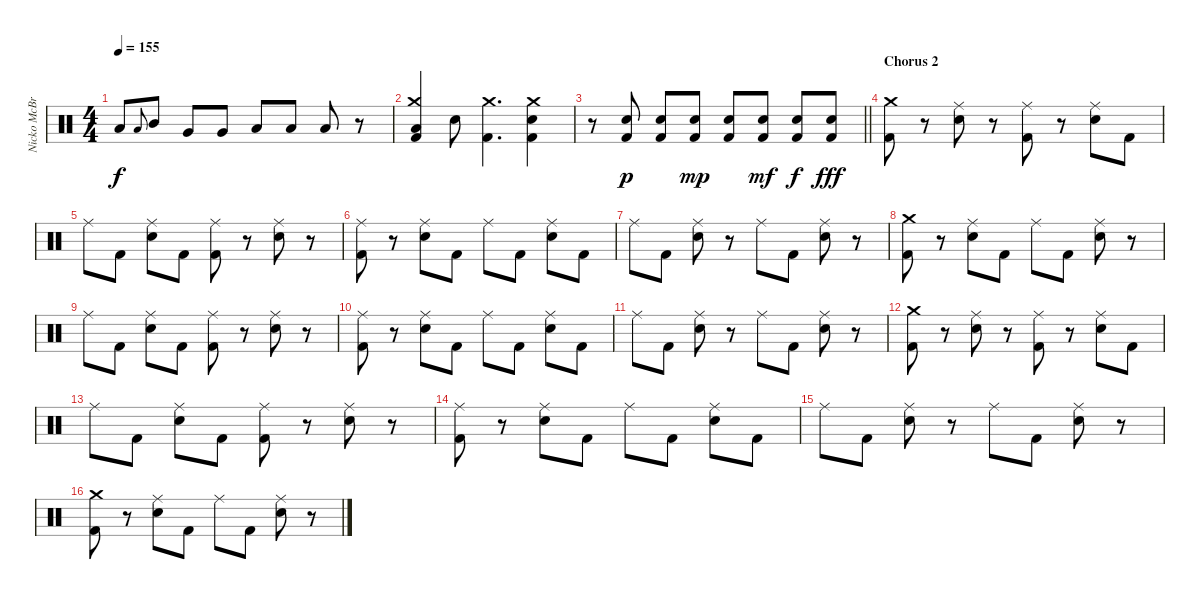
\track ("Nicko McBrain" "Nicko McBr") {instrument percussion}
\staff {score}
\articulation defaults
\ts (4 4)
\tempo 155
\clef neutral
\ks c "Low Floor Tom (hit)".8{dy f} "Low Tom (hit)".8{gr onbeat} "Mid Tom (hit)".8 "Very Low Tom (hit)".8 "Very Low Tom (hit)".8 "Low Tom (hit)".8 "Low Floor Tom (hit)".8 "Low Floor Tom (hit)".8
r.8 |
("Crash medium (hit)" "Low Floor Tom (hit)" "Kick (hit) 2").4 "Snare (hit) 2".8 ("Crash medium (hit)" "Kick (hit) 2").4{d} ("Crash medium (hit)" "Snare (hit) 2" "Kick (hit) 2").4 |
\barLineRight lightlight
r.8 ("Snare (hit) 2" "Kick (hit) 2").8{dy p} ("Snare (hit) 2" "Kick (hit) 2").8 ("Snare (hit) 2" "Kick (hit) 2").8{dy mp} ("Snare (hit) 2" "Kick (hit) 2").8 ("Snare (hit) 2" "Kick (hit) 2").8{dy mf} ("Snare (hit) 2" "Kick (hit) 2").8{dy f} ("Snare (hit) 2" "Kick (hit) 2").8{dy fff} |
\section ("" "Chorus 2")
("Crash medium (hit)" "Kick (hit) 2").8 r.8 ("Ride (middle)" "Snare (hit) 2").8 r.8 ("Ride (middle)" "Kick (hit) 2").8 r.8 ("Ride (middle)" "Snare (hit) 2").8 "Kick (hit) 2".8 |
"Ride (middle)".8 "Kick (hit) 2".8 ("Ride (middle)" "Snare (hit) 2").8 "Kick (hit) 2".8 ("Ride (middle)" "Kick (hit) 2").8 r.8 ("Ride (middle)" "Snare (hit) 2").8 r.8 |
("Ride (middle)" "Kick (hit) 2").8 r.8 ("Ride (middle)" "Snare (hit) 2").8 "Kick (hit) 2".8 "Ride (middle)".8 "Kick (hit) 2".8 ("Ride (middle)" "Snare (hit) 2").8 "Kick (hit) 2".8 |
"Ride (middle)".8 "Kick (hit) 2".8 ("Ride (middle)" "Snare (hit) 2").8 r.8 "Ride (middle)".8 "Kick (hit) 2".8 ("Ride (middle)" "Snare (hit) 2").8 r.8 |
("Crash medium (hit)" "Kick (hit) 2").8 r.8 ("Ride (middle)" "Snare (hit) 2").8 "Kick (hit) 2".8 "Ride (middle)".8 "Kick (hit) 2".8 ("Ride (middle)" "Snare (hit) 2").8 r.8 |
"Ride (middle)".8 "Kick (hit) 2".8 ("Ride (middle)" "Snare (hit) 2").8 "Kick (hit) 2".8 ("Ride (middle)" "Kick (hit) 2").8 r.8 ("Ride (middle)" "Snare (hit) 2").8 r.8 |
("Ride (middle)" "Kick (hit) 2").8 r.8 ("Ride (middle)" "Snare (hit) 2").8 "Kick (hit) 2".8 "Ride (middle)".8 "Kick (hit) 2".8 ("Ride (middle)" "Snare (hit) 2").8 "Kick (hit) 2".8 |
"Ride (middle)".8 "Kick (hit) 2".8 ("Ride (middle)" "Snare (hit) 2").8 r.8 "Ride (middle)".8 "Kick (hit) 2".8 ("Ride (middle)" "Snare (hit) 2").8 r.8 |
("Crash medium (hit)" "Kick (hit) 2").8 r.8 ("Ride (middle)" "Snare (hit) 2").8 r.8 ("Ride (middle)" "Kick (hit) 2").8 r.8 ("Ride (middle)" "Snare (hit) 2").8 "Kick (hit) 2".8 |
"Ride (middle)".8 "Kick (hit) 2".8 ("Ride (middle)" "Snare (hit) 2").8 "Kick (hit) 2".8 ("Ride (middle)" "Kick (hit) 2").8 r.8 ("Ride (middle)" "Snare (hit) 2").8 r.8 |
("Ride (middle)" "Kick (hit) 2").8 r.8 ("Ride (middle)" "Snare (hit) 2").8 "Kick (hit) 2".8 "Ride (middle)".8 "Kick (hit) 2".8 ("Ride (middle)" "Snare (hit) 2").8 "Kick (hit) 2".8 |
"Ride (middle)".8 "Kick (hit) 2".8 ("Ride (middle)" "Snare (hit) 2").8 r.8 "Ride (middle)".8 "Kick (hit) 2".8 ("Ride (middle)" "Snare (hit) 2").8 r.8 |
("Crash medium (hit)" "Kick (hit) 2").8 r.8 ("Ride (middle)" "Snare (hit) 2").8 "Kick (hit) 2".8 "Ride (middle)".8 "Kick (hit) 2".8 ("Ride (middle)" "Snare (hit) 2").8 r.8
